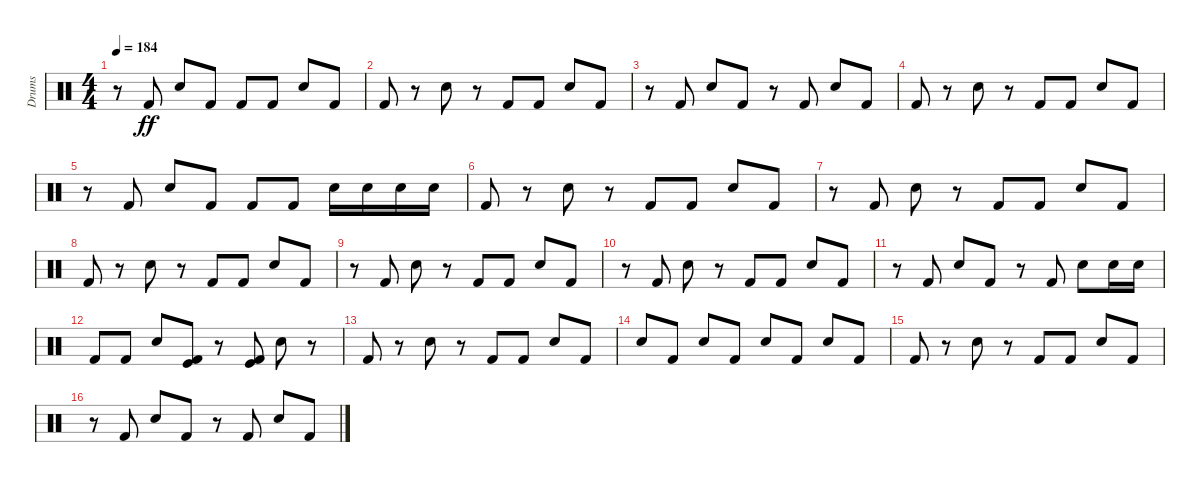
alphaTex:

\track ("Drums" "Drums") {instrument percussion}
\staff {score}
\articulation defaults
\ts (4 4)
\tempo 184
\clef neutral
\ks c
r.8{dy ff} "Kick (hit) 2".8 "Electric Snare (hit)".8 "Kick (hit) 2".8 "Kick (hit) 2".8 "Kick (hit) 2".8 "Electric Snare (hit)".8 "Kick (hit) 2".8 |
"Kick (hit) 2".8 r.8 "Electric Snare (hit)".8 r.8 "Kick (hit) 2".8 "Kick (hit) 2".8 "Electric Snare (hit)".8 "Kick (hit) 2".8 |
r.8 "Kick (hit) 2".8 "Electric Snare (hit)".8 "Kick (hit) 2".8 r.8 "Kick (hit) 2".8 "Electric Snare (hit)".8 "Kick (hit) 2".8 |
"Kick (hit) 2".8 r.8 "Electric Snare (hit)".8 r.8 "Kick (hit) 2".8 "Kick (hit) 2".8 "Electric Snare (hit)".8 "Kick (hit) 2".8 |
r.8 "Kick (hit) 2".8 "Electric Snare (hit)".8 "Kick (hit) 2".8 "Kick (hit) 2".8 "Kick (hit) 2".8 "Electric Snare (hit)".16 "Electric Snare (hit)".16 "Electric Snare (hit)".16 "Electric Snare (hit)".16 |
"Kick (hit) 2".8 r.8 "Electric Snare (hit)".8 r.8 "Kick (hit) 2".8 "Kick (hit) 2".8 "Electric Snare (hit)".8 "Kick (hit) 2".8 |
r.8 "Kick (hit) 2".8 "Electric Snare (hit)".8 r.8 "Kick (hit) 2".8 "Kick (hit) 2".8 "Electric Snare (hit)".8 "Kick (hit) 2".8 |
"Kick (hit) 2".8 r.8 "Electric Snare (hit)".8 r.8 "Kick (hit) 2".8 "Kick (hit) 2".8 "Electric Snare (hit)".8 "Kick (hit) 2".8 |
r.8 "Kick (hit) 2".8 "Electric Snare (hit)".8 r.8 "Kick (hit) 2".8 "Kick (hit) 2".8 "Electric Snare (hit)".8 "Kick (hit) 2".8 |
r.8 "Kick (hit) 2".8 "Electric Snare (hit)".8 r.8 "Kick (hit) 2".8 "Kick (hit) 2".8 "Electric Snare (hit)".8 "Kick (hit) 2".8 |
r.8 "Kick (hit) 2".8 "Electric Snare (hit)".8 "Kick (hit) 2".8 r.8 "Kick (hit) 2".8 "Electric Snare (hit)".8 "Electric Snare (hit)".16 "Electric Snare (hit)".16 |
"Kick (hit) 2".8 "Kick (hit) 2".8 "Electric Snare (hit)".8 ("Kick (hit)" "Kick (hit) 2").8 r.8 ("Kick (hit)" "Kick (hit) 2").8 "Electric Snare (hit)".8 r.8 |
"Kick (hit) 2".8 r.8 "Electric Snare (hit)".8 r.8 "Kick (hit) 2".8 "Kick (hit) 2".8 "Electric Snare (hit)".8 "Kick (hit) 2".8 |
"Electric Snare (hit)".8 "Kick (hit) 2".8 "Electric Snare (hit)".8 "Kick (hit) 2".8 "Electric Snare (hit)".8 "Kick (hit) 2".8 "Electric Snare (hit)".8 "Kick (hit) 2".8 |
"Kick (hit) 2".8 r.8 "Electric Snare (hit)".8 r.8 "Kick (hit) 2".8 "Kick (hit) 2".8 "Electric Snare (hit)".8 "Kick (hit) 2".8 |
r.8 "Kick (hit) 2".8 "Electric Snare (hit)".8 "Kick (hit) 2".8 r.8 "Kick (hit) 2".8 "Electric Snare (hit)".8 "Kick (hit) 2".8
